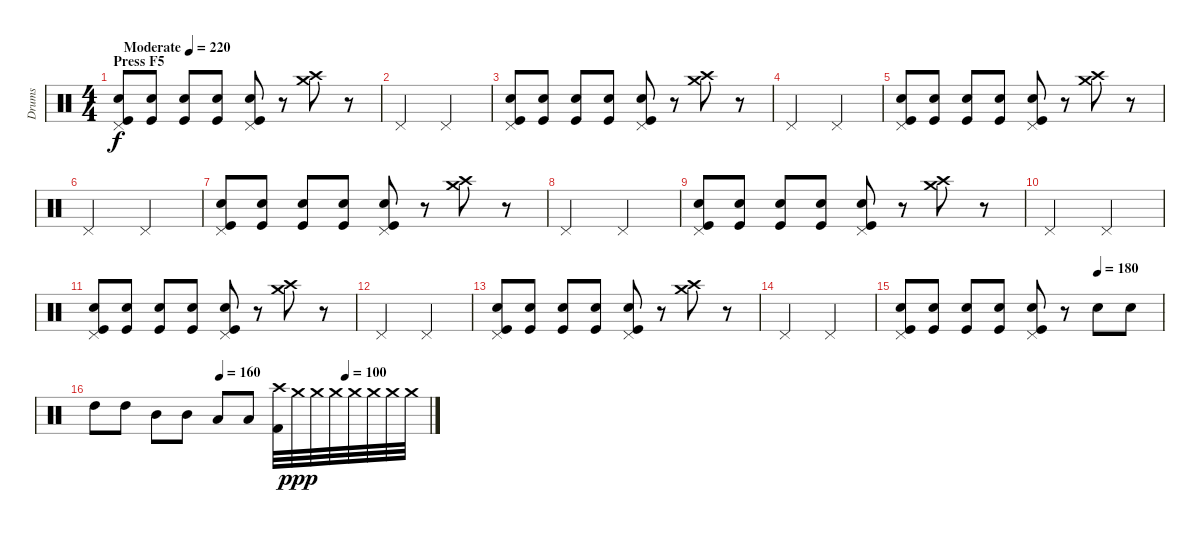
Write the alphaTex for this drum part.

\track ("Drums" "Drums") {instrument percussion}
\staff {score}
\articulation defaults
\ts (4 4)
\section ("" "Press F5")
\tempo (220 "Moderate")
\clef neutral
\ks c
("Pedal Hi-Hat (hit)" "Electric Snare (hit)" "Kick (hit)").8{dy f} ("Electric Snare (hit)" "Kick (hit)").8 ("Electric Snare (hit)" "Kick (hit)").8 ("Electric Snare (hit)" "Kick (hit)").8 ("Pedal Hi-Hat (hit)" "Electric Snare (hit)" "Kick (hit)").8 r.8 ("Crash high (hit)" "Crash medium (hit)").8 r.8 |
"Pedal Hi-Hat (hit)".2 "Pedal Hi-Hat (hit)".2 |
("Pedal Hi-Hat (hit)" "Electric Snare (hit)" "Kick (hit)").8 ("Electric Snare (hit)" "Kick (hit)").8 ("Electric Snare (hit)" "Kick (hit)").8 ("Electric Snare (hit)" "Kick (hit)").8 ("Pedal Hi-Hat (hit)" "Electric Snare (hit)" "Kick (hit)").8 r.8 ("Crash high (hit)" "Crash medium (hit)").8 r.8 |
"Pedal Hi-Hat (hit)".2 "Pedal Hi-Hat (hit)".2 |
("Pedal Hi-Hat (hit)" "Electric Snare (hit)" "Kick (hit)").8 ("Electric Snare (hit)" "Kick (hit)").8 ("Electric Snare (hit)" "Kick (hit)").8 ("Electric Snare (hit)" "Kick (hit)").8 ("Pedal Hi-Hat (hit)" "Electric Snare (hit)" "Kick (hit)").8 r.8 ("Crash high (hit)" "Crash medium (hit)").8 r.8 |
"Pedal Hi-Hat (hit)".2 "Pedal Hi-Hat (hit)".2 |
("Pedal Hi-Hat (hit)" "Electric Snare (hit)" "Kick (hit)").8 ("Electric Snare (hit)" "Kick (hit)").8 ("Electric Snare (hit)" "Kick (hit)").8 ("Electric Snare (hit)" "Kick (hit)").8 ("Pedal Hi-Hat (hit)" "Electric Snare (hit)" "Kick (hit)").8 r.8 ("Crash high (hit)" "Crash medium (hit)").8 r.8 |
"Pedal Hi-Hat (hit)".2 "Pedal Hi-Hat (hit)".2 |
("Pedal Hi-Hat (hit)" "Electric Snare (hit)" "Kick (hit)").8 ("Electric Snare (hit)" "Kick (hit)").8 ("Electric Snare (hit)" "Kick (hit)").8 ("Electric Snare (hit)" "Kick (hit)").8 ("Pedal Hi-Hat (hit)" "Electric Snare (hit)" "Kick (hit)").8 r.8 ("Crash high (hit)" "Crash medium (hit)").8 r.8 |
"Pedal Hi-Hat (hit)".2 "Pedal Hi-Hat (hit)".2 |
("Pedal Hi-Hat (hit)" "Electric Snare (hit)" "Kick (hit)").8 ("Electric Snare (hit)" "Kick (hit)").8 ("Electric Snare (hit)" "Kick (hit)").8 ("Electric Snare (hit)" "Kick (hit)").8 ("Pedal Hi-Hat (hit)" "Electric Snare (hit)" "Kick (hit)").8 r.8 ("Crash high (hit)" "Crash medium (hit)").8 r.8 |
"Pedal Hi-Hat (hit)".2 "Pedal Hi-Hat (hit)".2 |
("Pedal Hi-Hat (hit)" "Electric Snare (hit)" "Kick (hit)").8 ("Electric Snare (hit)" "Kick (hit)").8 ("Electric Snare (hit)" "Kick (hit)").8 ("Electric Snare (hit)" "Kick (hit)").8 ("Pedal Hi-Hat (hit)" "Electric Snare (hit)" "Kick (hit)").8 r.8 ("Crash high (hit)" "Crash medium (hit)").8 r.8 |
"Pedal Hi-Hat (hit)".2 "Pedal Hi-Hat (hit)".2 |
\tempo (180 0.75)
("Pedal Hi-Hat (hit)" "Electric Snare (hit)" "Kick (hit)").8 ("Electric Snare (hit)" "Kick (hit)").8 ("Electric Snare (hit)" "Kick (hit)").8 ("Electric Snare (hit)" "Kick (hit)").8 ("Pedal Hi-Hat (hit)" "Electric Snare (hit)" "Kick (hit)").8 r.8 "Electric Snare (hit)".8 "Electric Snare (hit)".8 |
\tempo (160 0.375)
\tempo (100 0.75)
"High Tom (hit)".8 "High Tom (hit)".8 "Mid Tom (hit)".8 "Mid Tom (hit)".8 "Low Tom (hit)".8 "Low Tom (hit)".8 ("Crash high (hit)" "Kick (hit) 2").32 "Crash medium (hit)".32{dy ppp} "Crash medium (hit)".32 "Crash medium (hit)".32 "Crash medium (hit)".32 "Crash medium (hit)".32 "Crash medium (hit)".32 "Crash medium (hit)".32
